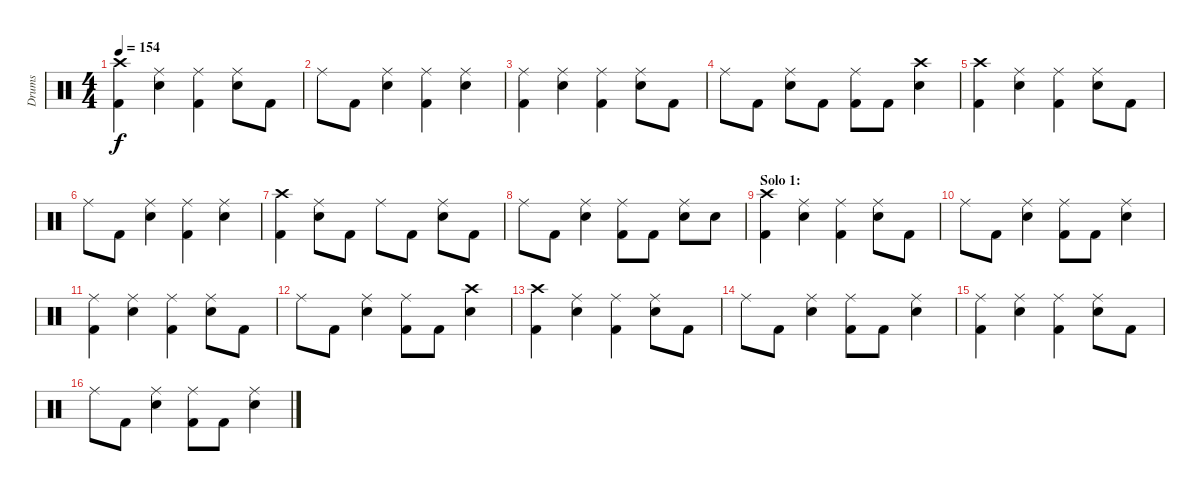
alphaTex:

\track ("Drums" "Drums") {instrument percussion}
\staff {score}
\articulation defaults
\ts (4 4)
\tempo 154
\clef neutral
\ks c
("Crash high (hit)" "Kick (hit) 2").4{dy f} ("Ride (middle)" "Snare (hit) 2").4 ("Ride (middle)" "Kick (hit) 2").4 ("Ride (middle)" "Snare (hit) 2").8 "Kick (hit) 2".8 |
"Ride (middle)".8 "Kick (hit) 2".8 ("Ride (middle)" "Snare (hit) 2").4 ("Ride (middle)" "Kick (hit) 2").4 ("Ride (middle)" "Snare (hit) 2").4 |
("Ride (middle)" "Kick (hit) 2").4 ("Ride (middle)" "Snare (hit) 2").4 ("Ride (middle)" "Kick (hit) 2").4 ("Ride (middle)" "Snare (hit) 2").8 "Kick (hit) 2".8 |
"Ride (middle)".8 "Kick (hit) 2".8 ("Ride (middle)" "Snare (hit) 2").8 "Kick (hit) 2".8 ("Ride (middle)" "Kick (hit) 2").8 "Kick (hit) 2".8 ("Crash high (hit)" "Snare (hit) 2").4 |
("Crash high (hit)" "Kick (hit) 2").4 ("Ride (middle)" "Snare (hit) 2").4 ("Ride (middle)" "Kick (hit) 2").4 ("Ride (middle)" "Snare (hit) 2").8 "Kick (hit) 2".8 |
"Ride (middle)".8 "Kick (hit) 2".8 ("Ride (middle)" "Snare (hit) 2").4 ("Ride (middle)" "Kick (hit) 2").4 ("Ride (middle)" "Snare (hit) 2").4 |
("Crash high (hit)" "Kick (hit) 2").4 ("Ride (middle)" "Snare (hit) 2").8 "Kick (hit) 2".8 "Ride (middle)".8 "Kick (hit) 2".8 ("Ride (middle)" "Snare (hit) 2").8 "Kick (hit) 2".8 |
"Ride (middle)".8 "Kick (hit) 2".8 ("Ride (middle)" "Snare (hit) 2").4 ("Ride (middle)" "Kick (hit) 2").8 "Kick (hit) 2".8 ("Ride (middle)" "Snare (hit) 2").8 "Snare (hit) 2".8 |
\section ("" "Solo 1:")
("Crash high (hit)" "Kick (hit) 2").4 ("Ride (middle)" "Snare (hit) 2").4 ("Ride (middle)" "Kick (hit) 2").4 ("Ride (middle)" "Snare (hit) 2").8 "Kick (hit) 2".8 |
"Ride (middle)".8 "Kick (hit) 2".8 ("Ride (middle)" "Snare (hit) 2").4 ("Ride (middle)" "Kick (hit) 2").8 "Kick (hit) 2".8 ("Ride (middle)" "Snare (hit) 2").4 |
("Ride (middle)" "Kick (hit) 2").4 ("Ride (middle)" "Snare (hit) 2").4 ("Ride (middle)" "Kick (hit) 2").4 ("Ride (middle)" "Snare (hit) 2").8 "Kick (hit) 2".8 |
"Ride (middle)".8 "Kick (hit) 2".8 ("Ride (middle)" "Snare (hit) 2").4 ("Ride (middle)" "Kick (hit) 2").8 "Kick (hit) 2".8 ("Crash high (hit)" "Snare (hit) 2").4 |
("Crash high (hit)" "Kick (hit) 2").4 ("Ride (middle)" "Snare (hit) 2").4 ("Ride (middle)" "Kick (hit) 2").4 ("Ride (middle)" "Snare (hit) 2").8 "Kick (hit) 2".8 |
"Ride (middle)".8 "Kick (hit) 2".8 ("Ride (middle)" "Snare (hit) 2").4 ("Ride (middle)" "Kick (hit) 2").8 "Kick (hit) 2".8 ("Ride (middle)" "Snare (hit) 2").4 |
("Ride (middle)" "Kick (hit) 2").4 ("Ride (middle)" "Snare (hit) 2").4 ("Ride (middle)" "Kick (hit) 2").4 ("Ride (middle)" "Snare (hit) 2").8 "Kick (hit) 2".8 |
"Ride (middle)".8 "Kick (hit) 2".8 ("Ride (middle)" "Snare (hit) 2").4 ("Ride (middle)" "Kick (hit) 2").8 "Kick (hit) 2".8 ("Ride (middle)" "Snare (hit) 2").4
